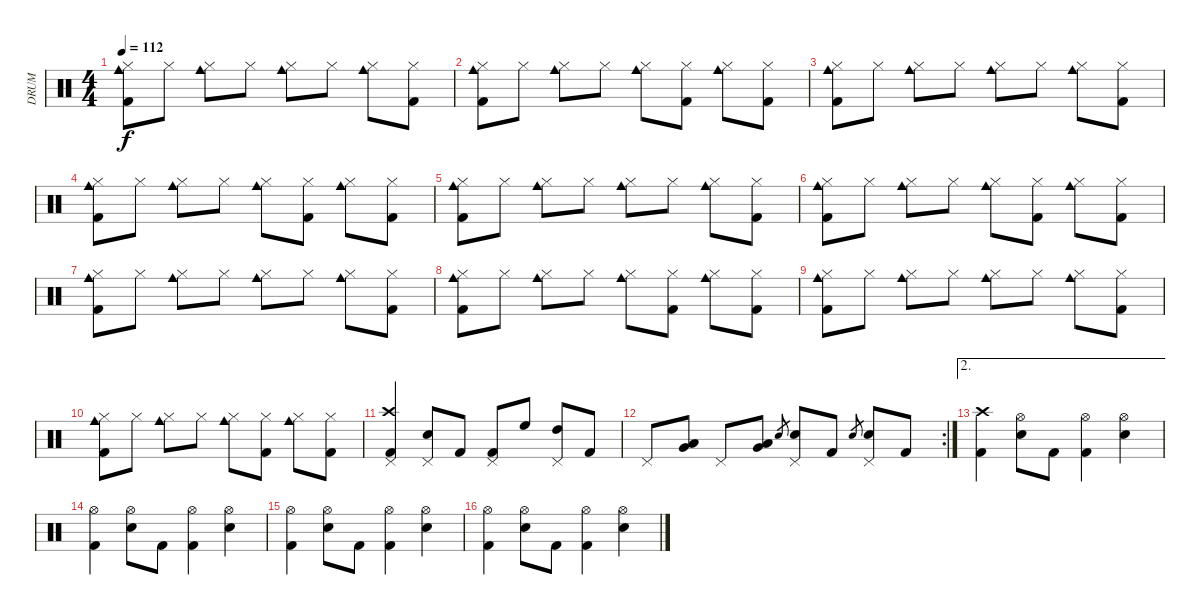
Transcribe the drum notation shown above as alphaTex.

\track ("DRUM" "DRUM") {instrument percussion}
\staff {score}
\articulation defaults
\ts (4 4)
\tempo 112
\clef neutral
\ks c
("Cowbell medium (hit)" "Hi-Hat (closed)" "Kick (hit) 2").8{dy f} "Hi-Hat (closed)".8 ("Cowbell medium (hit)" "Hi-Hat (closed)").8 "Hi-Hat (closed)".8 ("Cowbell medium (hit)" "Hi-Hat (closed)").8 "Hi-Hat (closed)".8 ("Cowbell medium (hit)" "Hi-Hat (closed)").8 ("Hi-Hat (closed)" "Kick (hit) 2").8 |
("Cowbell medium (hit)" "Hi-Hat (closed)" "Kick (hit) 2").8 "Hi-Hat (closed)".8 ("Cowbell medium (hit)" "Hi-Hat (closed)").8 "Hi-Hat (closed)".8 ("Cowbell medium (hit)" "Hi-Hat (closed)").8 ("Hi-Hat (closed)" "Kick (hit) 2").8 ("Cowbell medium (hit)" "Hi-Hat (closed)").8 ("Hi-Hat (closed)" "Kick (hit) 2").8 |
("Cowbell medium (hit)" "Hi-Hat (closed)" "Kick (hit) 2").8 "Hi-Hat (closed)".8 ("Cowbell medium (hit)" "Hi-Hat (closed)").8 "Hi-Hat (closed)".8 ("Cowbell medium (hit)" "Hi-Hat (closed)").8 "Hi-Hat (closed)".8 ("Cowbell medium (hit)" "Hi-Hat (closed)").8 ("Hi-Hat (closed)" "Kick (hit) 2").8 |
("Cowbell medium (hit)" "Hi-Hat (closed)" "Kick (hit) 2").8 "Hi-Hat (closed)".8 ("Cowbell medium (hit)" "Hi-Hat (closed)").8 "Hi-Hat (closed)".8 ("Cowbell medium (hit)" "Hi-Hat (closed)").8 ("Hi-Hat (closed)" "Kick (hit) 2").8 ("Cowbell medium (hit)" "Hi-Hat (closed)").8 ("Hi-Hat (closed)" "Kick (hit) 2").8 |
("Cowbell medium (hit)" "Hi-Hat (closed)" "Kick (hit) 2").8 "Hi-Hat (closed)".8 ("Cowbell medium (hit)" "Hi-Hat (closed)").8 "Hi-Hat (closed)".8 ("Cowbell medium (hit)" "Hi-Hat (closed)").8 "Hi-Hat (closed)".8 ("Cowbell medium (hit)" "Hi-Hat (closed)").8 ("Hi-Hat (closed)" "Kick (hit) 2").8 |
("Cowbell medium (hit)" "Hi-Hat (closed)" "Kick (hit) 2").8 "Hi-Hat (closed)".8 ("Cowbell medium (hit)" "Hi-Hat (closed)").8 "Hi-Hat (closed)".8 ("Cowbell medium (hit)" "Hi-Hat (closed)").8 ("Hi-Hat (closed)" "Kick (hit) 2").8 ("Cowbell medium (hit)" "Hi-Hat (closed)").8 ("Hi-Hat (closed)" "Kick (hit) 2").8 |
("Cowbell medium (hit)" "Hi-Hat (closed)" "Kick (hit) 2").8 "Hi-Hat (closed)".8 ("Cowbell medium (hit)" "Hi-Hat (closed)").8 "Hi-Hat (closed)".8 ("Cowbell medium (hit)" "Hi-Hat (closed)").8 "Hi-Hat (closed)".8 ("Cowbell medium (hit)" "Hi-Hat (closed)").8 ("Hi-Hat (closed)" "Kick (hit) 2").8 |
("Cowbell medium (hit)" "Hi-Hat (closed)" "Kick (hit) 2").8 "Hi-Hat (closed)".8 ("Cowbell medium (hit)" "Hi-Hat (closed)").8 "Hi-Hat (closed)".8 ("Cowbell medium (hit)" "Hi-Hat (closed)").8 ("Hi-Hat (closed)" "Kick (hit) 2").8 ("Cowbell medium (hit)" "Hi-Hat (closed)").8 ("Hi-Hat (closed)" "Kick (hit) 2").8 |
("Cowbell medium (hit)" "Hi-Hat (closed)" "Kick (hit) 2").8 "Hi-Hat (closed)".8 ("Cowbell medium (hit)" "Hi-Hat (closed)").8 "Hi-Hat (closed)".8 ("Cowbell medium (hit)" "Hi-Hat (closed)").8 "Hi-Hat (closed)".8 ("Cowbell medium (hit)" "Hi-Hat (closed)").8 ("Hi-Hat (closed)" "Kick (hit) 2").8 |
("Cowbell medium (hit)" "Hi-Hat (closed)" "Kick (hit) 2").8 "Hi-Hat (closed)".8 ("Cowbell medium (hit)" "Hi-Hat (closed)").8 "Hi-Hat (closed)".8 ("Cowbell medium (hit)" "Hi-Hat (closed)").8 ("Hi-Hat (closed)" "Kick (hit) 2").8 ("Cowbell medium (hit)" "Hi-Hat (closed)").8 ("Hi-Hat (closed)" "Kick (hit) 2").8 |
("Crash high (hit)" "Pedal Hi-Hat (hit)" "Kick (hit) 2").4 ("Snare (hit) 2" "Pedal Hi-Hat (hit)").8 "Kick (hit) 2".8 ("Pedal Hi-Hat (hit)" "Kick (hit) 2").8 "High Floor Tom (hit)".8 ("High Tom (hit)" "Pedal Hi-Hat (hit)").8 "Kick (hit) 2".8 |
\rc 2 "Pedal Hi-Hat (hit)".8
("Low Tom (hit)" "Very Low Tom (hit)").8 "Pedal Hi-Hat (hit)".8 ("Very Low Tom (hit)" "Low Floor Tom (hit)").8 "Snare (hit) 2".8{gr} ("Snare (hit) 2" "Pedal Hi-Hat (hit)").8 "Kick (hit) 2".8 "Snare (hit) 2".8{gr} ("Snare (hit) 2" "Pedal Hi-Hat (hit)").8 "Kick (hit) 2".8 |
\ae 2
("Crash high (hit)" "Kick (hit) 2").4 ("Snare (hit) 2" "Hi-Hat (open)").8 "Kick (hit) 2".8 ("Hi-Hat (open)" "Kick (hit) 2").4 ("Snare (hit) 2" "Hi-Hat (open)").4 |
("Hi-Hat (open)" "Kick (hit) 2").4 ("Snare (hit) 2" "Hi-Hat (open)").8 "Kick (hit) 2".8 ("Hi-Hat (open)" "Kick (hit) 2").4 ("Snare (hit) 2" "Hi-Hat (open)").4 |
("Hi-Hat (open)" "Kick (hit) 2").4 ("Snare (hit) 2" "Hi-Hat (open)").8 "Kick (hit) 2".8 ("Hi-Hat (open)" "Kick (hit) 2").4 ("Snare (hit) 2" "Hi-Hat (open)").4 |
("Hi-Hat (open)" "Kick (hit) 2").4 ("Snare (hit) 2" "Hi-Hat (open)").8 "Kick (hit) 2".8 ("Hi-Hat (open)" "Kick (hit) 2").4 ("Snare (hit) 2" "Hi-Hat (open)").4
